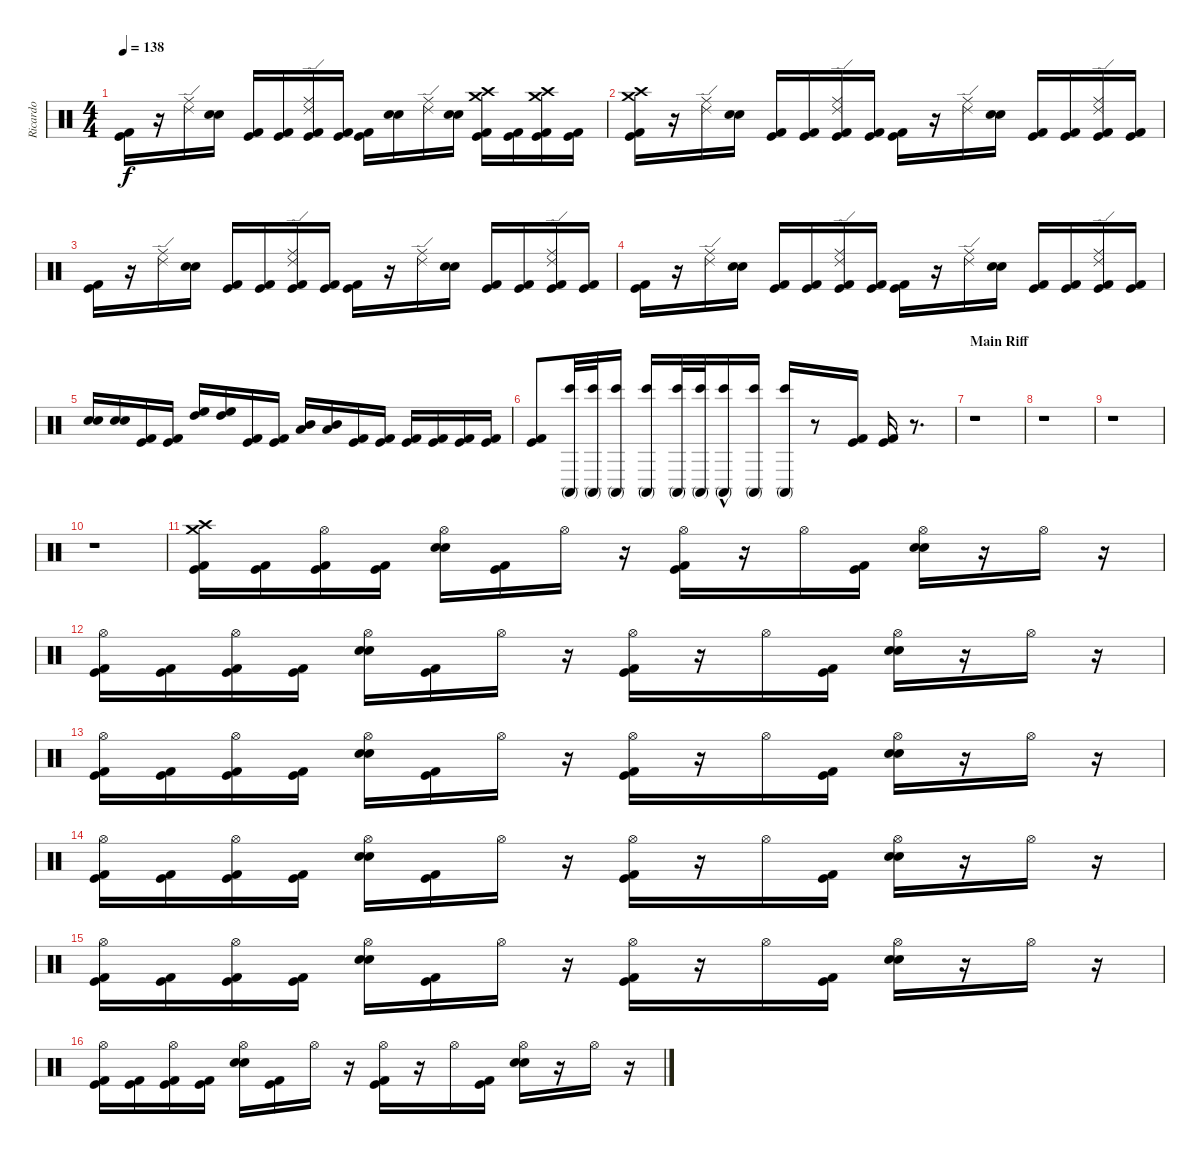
\track ("Ricardo" "Ricardo") {instrument percussion}
\staff {score}
\articulation defaults
\ts (4 4)
\tempo 138
\clef neutral
\ks c
("Kick (hit)" "Kick (hit) 2").16{dy f} r.16 ("Ride (middle)" "Ride (edge) 2").16 ("Electric Snare (hit)" "Snare (hit) 2").16 ("Kick (hit) 2" "Kick (hit)").16 ("Kick (hit) 2" "Kick (hit)").16 ("Ride (middle)" "Ride (edge) 2" "Kick (hit) 2" "Kick (hit)").16 ("Kick (hit) 2" "Kick (hit)").16 ("Kick (hit) 2" "Kick (hit)").16 ("Electric Snare (hit)" "Snare (hit) 2").16 ("Ride (middle)" "Ride (edge) 2").16 ("Electric Snare (hit)" "Snare (hit) 2").16 ("Crash high (hit)" "Crash medium (hit)" "Kick (hit) 2" "Kick (hit)").16 ("Kick (hit) 2" "Kick (hit)").16 ("Crash high (hit)" "Crash medium (hit)" "Kick (hit) 2" "Kick (hit)").16 ("Kick (hit) 2" "Kick (hit)").16 |
("Crash high (hit)" "Crash medium (hit)" "Kick (hit) 2" "Kick (hit)").16 r.16 ("Ride (middle)" "Ride (edge) 2").16 ("Electric Snare (hit)" "Snare (hit) 2").16 ("Kick (hit) 2" "Kick (hit)").16 ("Kick (hit) 2" "Kick (hit)").16 ("Ride (middle)" "Ride (edge) 2" "Kick (hit) 2" "Kick (hit)").16 ("Kick (hit) 2" "Kick (hit)").16 ("Kick (hit) 2" "Kick (hit)").16 r.16 ("Ride (middle)" "Ride (edge) 2").16 ("Electric Snare (hit)" "Snare (hit) 2").16 ("Kick (hit) 2" "Kick (hit)").16 ("Kick (hit) 2" "Kick (hit)").16 ("Ride (middle)" "Ride (edge) 2" "Kick (hit) 2" "Kick (hit)").16 ("Kick (hit) 2" "Kick (hit)").16 |
("Kick (hit)" "Kick (hit) 2").16 r.16 ("Ride (middle)" "Ride (edge) 2").16 ("Electric Snare (hit)" "Snare (hit) 2").16 ("Kick (hit) 2" "Kick (hit)").16 ("Kick (hit) 2" "Kick (hit)").16 ("Ride (middle)" "Ride (edge) 2" "Kick (hit) 2" "Kick (hit)").16 ("Kick (hit) 2" "Kick (hit)").16 ("Kick (hit) 2" "Kick (hit)").16 r.16 ("Ride (middle)" "Ride (edge) 2").16 ("Electric Snare (hit)" "Snare (hit) 2").16 ("Kick (hit) 2" "Kick (hit)").16 ("Kick (hit) 2" "Kick (hit)").16 ("Ride (middle)" "Ride (edge) 2" "Kick (hit) 2" "Kick (hit)").16 ("Kick (hit) 2" "Kick (hit)").16 |
("Kick (hit)" "Kick (hit) 2").16 r.16 ("Ride (middle)" "Ride (edge) 2").16 ("Electric Snare (hit)" "Snare (hit) 2").16 ("Kick (hit) 2" "Kick (hit)").16 ("Kick (hit) 2" "Kick (hit)").16 ("Ride (middle)" "Ride (edge) 2" "Kick (hit) 2" "Kick (hit)").16 ("Kick (hit) 2" "Kick (hit)").16 ("Kick (hit) 2" "Kick (hit)").16 r.16 ("Ride (middle)" "Ride (edge) 2").16 ("Electric Snare (hit)" "Snare (hit) 2").16 ("Kick (hit) 2" "Kick (hit)").16 ("Kick (hit) 2" "Kick (hit)").16 ("Ride (middle)" "Ride (edge) 2" "Kick (hit) 2" "Kick (hit)").16 ("Kick (hit) 2" "Kick (hit)").16 |
("Electric Snare (hit)" "Snare (hit) 2").16 ("Electric Snare (hit)" "Snare (hit) 2").16 ("Kick (hit) 2" "Kick (hit)").16 ("Kick (hit) 2" "Kick (hit)").16 ("High Tom (hit)" "High Floor Tom (hit)").16 ("High Floor Tom (hit)" "High Tom (hit)").16 ("Kick (hit) 2" "Kick (hit)").16 ("Kick (hit) 2" "Kick (hit)").16 ("Mid Tom (hit)" "Low Tom (hit)").16 ("Mid Tom (hit)" "Low Tom (hit)").16 ("Kick (hit) 2" "Kick (hit)").16 ("Kick (hit) 2" "Kick (hit)").16 ("Kick (hit) 2" "Kick (hit)").16 ("Kick (hit) 2" "Kick (hit)").16 ("Kick (hit) 2" "Kick (hit)").16 ("Kick (hit) 2" "Kick (hit)").16 |
("Kick (hit)" "Kick (hit) 2").8 ("Conga high (mute)" "Bongo High (hit)").32 ("Conga high (mute)" "Bongo High (hit)").32 ("Conga high (mute)" "Bongo High (hit)").16 ("Conga high (mute)" "Bongo High (hit)").16 ("Conga high (mute)" "Bongo High (hit)").32 ("Conga high (mute)" "Bongo High (hit)").32 ("Conga high (mute)"{hac} "Bongo High (hit)").16 ("Conga high (mute)" "Bongo High (hit)").16 ("Conga high (mute)" "Bongo High (hit)").16 r.8 ("Kick (hit) 2" "Kick (hit)").16 ("Kick (hit) 2" "Kick (hit)").16 r.8{d} |
\section ("" "Main Riff")
r.1 |
r.1 |
r.1 |
r.1 |
("Crash high (hit)" "Crash medium (hit)" "Kick (hit) 2" "Kick (hit)").16 ("Kick (hit) 2" "Kick (hit)").16 ("Hi-Hat (open)" "Kick (hit) 2" "Kick (hit)").16 ("Kick (hit) 2" "Kick (hit)").16 ("Hi-Hat (open)" "Electric Snare (hit)" "Snare (hit) 2").16 ("Kick (hit) 2" "Kick (hit)").16 "Hi-Hat (open)".16 r.16 ("Kick (hit) 2" "Kick (hit)" "Hi-Hat (open)").16 r.16 "Hi-Hat (open)".16 ("Kick (hit) 2" "Kick (hit)").16 ("Electric Snare (hit)" "Snare (hit) 2" "Hi-Hat (open)").16 r.16 "Hi-Hat (open)".16 r.16 |
("Hi-Hat (open)" "Kick (hit) 2" "Kick (hit)").16 ("Kick (hit) 2" "Kick (hit)").16 ("Hi-Hat (open)" "Kick (hit) 2" "Kick (hit)").16 ("Kick (hit) 2" "Kick (hit)").16 ("Hi-Hat (open)" "Electric Snare (hit)" "Snare (hit) 2").16 ("Kick (hit) 2" "Kick (hit)").16 "Hi-Hat (open)".16 r.16 ("Kick (hit) 2" "Kick (hit)" "Hi-Hat (open)").16 r.16 "Hi-Hat (open)".16 ("Kick (hit) 2" "Kick (hit)").16 ("Electric Snare (hit)" "Snare (hit) 2" "Hi-Hat (open)").16 r.16 "Hi-Hat (open)".16 r.16 |
("Hi-Hat (open)" "Kick (hit) 2" "Kick (hit)").16 ("Kick (hit) 2" "Kick (hit)").16 ("Hi-Hat (open)" "Kick (hit) 2" "Kick (hit)").16 ("Kick (hit) 2" "Kick (hit)").16 ("Hi-Hat (open)" "Electric Snare (hit)" "Snare (hit) 2").16 ("Kick (hit) 2" "Kick (hit)").16 "Hi-Hat (open)".16 r.16 ("Kick (hit) 2" "Kick (hit)" "Hi-Hat (open)").16 r.16 "Hi-Hat (open)".16 ("Kick (hit) 2" "Kick (hit)").16 ("Electric Snare (hit)" "Snare (hit) 2" "Hi-Hat (open)").16 r.16 "Hi-Hat (open)".16 r.16 |
("Hi-Hat (open)" "Kick (hit) 2" "Kick (hit)").16 ("Kick (hit) 2" "Kick (hit)").16 ("Hi-Hat (open)" "Kick (hit) 2" "Kick (hit)").16 ("Kick (hit) 2" "Kick (hit)").16 ("Hi-Hat (open)" "Electric Snare (hit)" "Snare (hit) 2").16 ("Kick (hit) 2" "Kick (hit)").16 "Hi-Hat (open)".16 r.16 ("Kick (hit) 2" "Kick (hit)" "Hi-Hat (open)").16 r.16 "Hi-Hat (open)".16 ("Kick (hit) 2" "Kick (hit)").16 ("Electric Snare (hit)" "Snare (hit) 2" "Hi-Hat (open)").16 r.16 "Hi-Hat (open)".16 r.16 |
("Hi-Hat (open)" "Kick (hit) 2" "Kick (hit)").16 ("Kick (hit) 2" "Kick (hit)").16 ("Hi-Hat (open)" "Kick (hit) 2" "Kick (hit)").16 ("Kick (hit) 2" "Kick (hit)").16 ("Hi-Hat (open)" "Electric Snare (hit)" "Snare (hit) 2").16 ("Kick (hit) 2" "Kick (hit)").16 "Hi-Hat (open)".16 r.16 ("Kick (hit) 2" "Kick (hit)" "Hi-Hat (open)").16 r.16 "Hi-Hat (open)".16 ("Kick (hit) 2" "Kick (hit)").16 ("Electric Snare (hit)" "Snare (hit) 2" "Hi-Hat (open)").16 r.16 "Hi-Hat (open)".16 r.16 |
("Hi-Hat (open)" "Kick (hit) 2" "Kick (hit)").16 ("Kick (hit) 2" "Kick (hit)").16 ("Hi-Hat (open)" "Kick (hit) 2" "Kick (hit)").16 ("Kick (hit) 2" "Kick (hit)").16 ("Hi-Hat (open)" "Electric Snare (hit)" "Snare (hit) 2").16 ("Kick (hit) 2" "Kick (hit)").16 "Hi-Hat (open)".16 r.16 ("Kick (hit) 2" "Kick (hit)" "Hi-Hat (open)").16 r.16 "Hi-Hat (open)".16 ("Kick (hit) 2" "Kick (hit)").16 ("Electric Snare (hit)" "Snare (hit) 2" "Hi-Hat (open)").16 r.16 "Hi-Hat (open)".16 r.16
